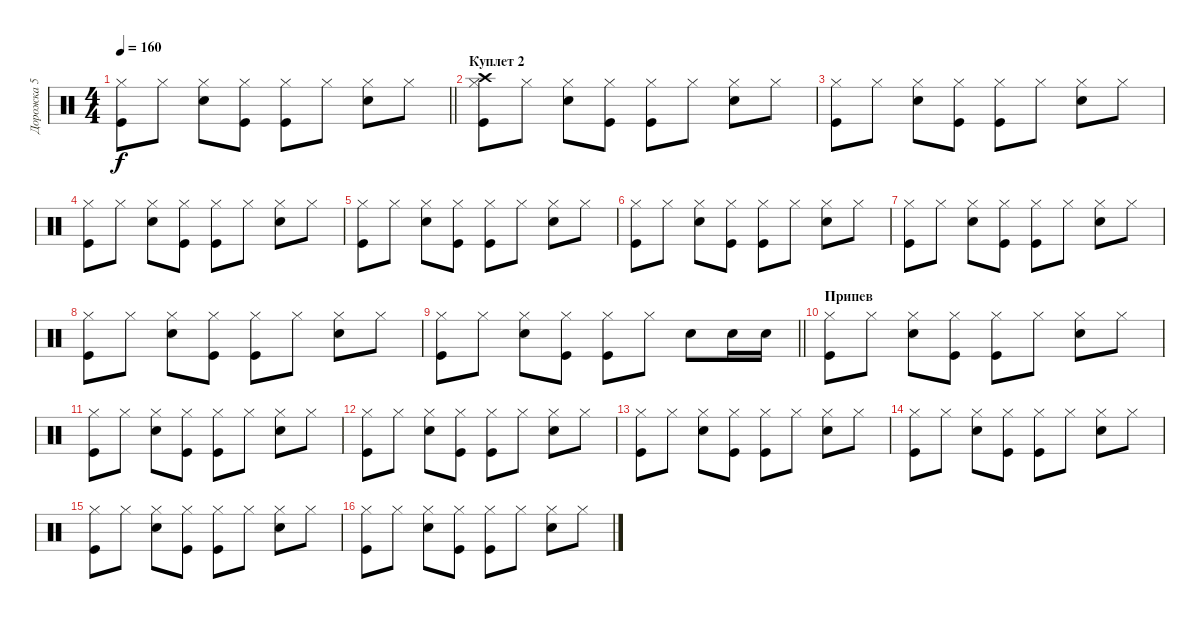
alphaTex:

\track ("Дорожка 5" "Дорожка 5") {solo instrument percussion}
\staff {score}
\articulation defaults
\ts (4 4)
\tempo 160
\clef neutral
\barLineRight lightlight
\ks c
("Kick (hit)" "Hi-Hat (closed)").8{dy f} "Hi-Hat (closed)".8 ("Hi-Hat (closed)" "Snare (hit) 2").8 ("Kick (hit)" "Hi-Hat (closed)").8 ("Kick (hit)" "Hi-Hat (closed)").8 "Hi-Hat (closed)".8 ("Hi-Hat (closed)" "Snare (hit) 2").8 "Hi-Hat (closed)".8 |
\section ("" "Куплет 2")
("Kick (hit)" "Hi-Hat (closed)" "Crash high (hit)").8 "Hi-Hat (closed)".8 ("Hi-Hat (closed)" "Snare (hit) 2").8 ("Kick (hit)" "Hi-Hat (closed)").8 ("Kick (hit)" "Hi-Hat (closed)").8 "Hi-Hat (closed)".8 ("Hi-Hat (closed)" "Snare (hit) 2").8 "Hi-Hat (closed)".8 |
("Kick (hit)" "Hi-Hat (closed)").8 "Hi-Hat (closed)".8 ("Hi-Hat (closed)" "Snare (hit) 2").8 ("Kick (hit)" "Hi-Hat (closed)").8 ("Kick (hit)" "Hi-Hat (closed)").8 "Hi-Hat (closed)".8 ("Hi-Hat (closed)" "Snare (hit) 2").8 "Hi-Hat (closed)".8 |
("Kick (hit)" "Hi-Hat (closed)").8 "Hi-Hat (closed)".8 ("Hi-Hat (closed)" "Snare (hit) 2").8 ("Kick (hit)" "Hi-Hat (closed)").8 ("Kick (hit)" "Hi-Hat (closed)").8 "Hi-Hat (closed)".8 ("Hi-Hat (closed)" "Snare (hit) 2").8 "Hi-Hat (closed)".8 |
("Kick (hit)" "Hi-Hat (closed)").8 "Hi-Hat (closed)".8 ("Hi-Hat (closed)" "Snare (hit) 2").8 ("Kick (hit)" "Hi-Hat (closed)").8 ("Kick (hit)" "Hi-Hat (closed)").8 "Hi-Hat (closed)".8 ("Hi-Hat (closed)" "Snare (hit) 2").8 "Hi-Hat (closed)".8 |
("Kick (hit)" "Hi-Hat (closed)").8 "Hi-Hat (closed)".8 ("Hi-Hat (closed)" "Snare (hit) 2").8 ("Kick (hit)" "Hi-Hat (closed)").8 ("Kick (hit)" "Hi-Hat (closed)").8 "Hi-Hat (closed)".8 ("Hi-Hat (closed)" "Snare (hit) 2").8 "Hi-Hat (closed)".8 |
("Kick (hit)" "Hi-Hat (closed)").8 "Hi-Hat (closed)".8 ("Hi-Hat (closed)" "Snare (hit) 2").8 ("Kick (hit)" "Hi-Hat (closed)").8 ("Kick (hit)" "Hi-Hat (closed)").8 "Hi-Hat (closed)".8 ("Hi-Hat (closed)" "Snare (hit) 2").8 "Hi-Hat (closed)".8 |
("Kick (hit)" "Hi-Hat (closed)").8 "Hi-Hat (closed)".8 ("Hi-Hat (closed)" "Snare (hit) 2").8 ("Kick (hit)" "Hi-Hat (closed)").8 ("Kick (hit)" "Hi-Hat (closed)").8 "Hi-Hat (closed)".8 ("Hi-Hat (closed)" "Snare (hit) 2").8 "Hi-Hat (closed)".8 |
\barLineRight lightlight
("Kick (hit)" "Hi-Hat (closed)").8 "Hi-Hat (closed)".8 ("Hi-Hat (closed)" "Snare (hit) 2").8 ("Kick (hit)" "Hi-Hat (closed)").8 ("Kick (hit)" "Hi-Hat (closed)").8 "Hi-Hat (closed)".8 "Snare (hit) 2".8 "Snare (hit) 2".16 "Snare (hit) 2".16 |
\section ("" "Припев")
("Kick (hit)" "Hi-Hat (closed)").8 "Hi-Hat (closed)".8 ("Hi-Hat (closed)" "Snare (hit) 2").8 ("Kick (hit)" "Hi-Hat (closed)").8 ("Kick (hit)" "Hi-Hat (closed)").8 "Hi-Hat (closed)".8 ("Hi-Hat (closed)" "Snare (hit) 2").8 "Hi-Hat (closed)".8 |
("Kick (hit)" "Hi-Hat (closed)").8 "Hi-Hat (closed)".8 ("Hi-Hat (closed)" "Snare (hit) 2").8 ("Kick (hit)" "Hi-Hat (closed)").8 ("Kick (hit)" "Hi-Hat (closed)").8 "Hi-Hat (closed)".8 ("Hi-Hat (closed)" "Snare (hit) 2").8 "Hi-Hat (closed)".8 |
("Kick (hit)" "Hi-Hat (closed)").8 "Hi-Hat (closed)".8 ("Hi-Hat (closed)" "Snare (hit) 2").8 ("Kick (hit)" "Hi-Hat (closed)").8 ("Kick (hit)" "Hi-Hat (closed)").8 "Hi-Hat (closed)".8 ("Hi-Hat (closed)" "Snare (hit) 2").8 "Hi-Hat (closed)".8 |
("Kick (hit)" "Hi-Hat (closed)").8 "Hi-Hat (closed)".8 ("Hi-Hat (closed)" "Snare (hit) 2").8 ("Kick (hit)" "Hi-Hat (closed)").8 ("Kick (hit)" "Hi-Hat (closed)").8 "Hi-Hat (closed)".8 ("Hi-Hat (closed)" "Snare (hit) 2").8 "Hi-Hat (closed)".8 |
("Kick (hit)" "Hi-Hat (closed)").8 "Hi-Hat (closed)".8 ("Hi-Hat (closed)" "Snare (hit) 2").8 ("Kick (hit)" "Hi-Hat (closed)").8 ("Kick (hit)" "Hi-Hat (closed)").8 "Hi-Hat (closed)".8 ("Hi-Hat (closed)" "Snare (hit) 2").8 "Hi-Hat (closed)".8 |
("Kick (hit)" "Hi-Hat (closed)").8 "Hi-Hat (closed)".8 ("Hi-Hat (closed)" "Snare (hit) 2").8 ("Kick (hit)" "Hi-Hat (closed)").8 ("Kick (hit)" "Hi-Hat (closed)").8 "Hi-Hat (closed)".8 ("Hi-Hat (closed)" "Snare (hit) 2").8 "Hi-Hat (closed)".8 |
("Kick (hit)" "Hi-Hat (closed)").8 "Hi-Hat (closed)".8 ("Hi-Hat (closed)" "Snare (hit) 2").8 ("Kick (hit)" "Hi-Hat (closed)").8 ("Kick (hit)" "Hi-Hat (closed)").8 "Hi-Hat (closed)".8 ("Hi-Hat (closed)" "Snare (hit) 2").8 "Hi-Hat (closed)".8
